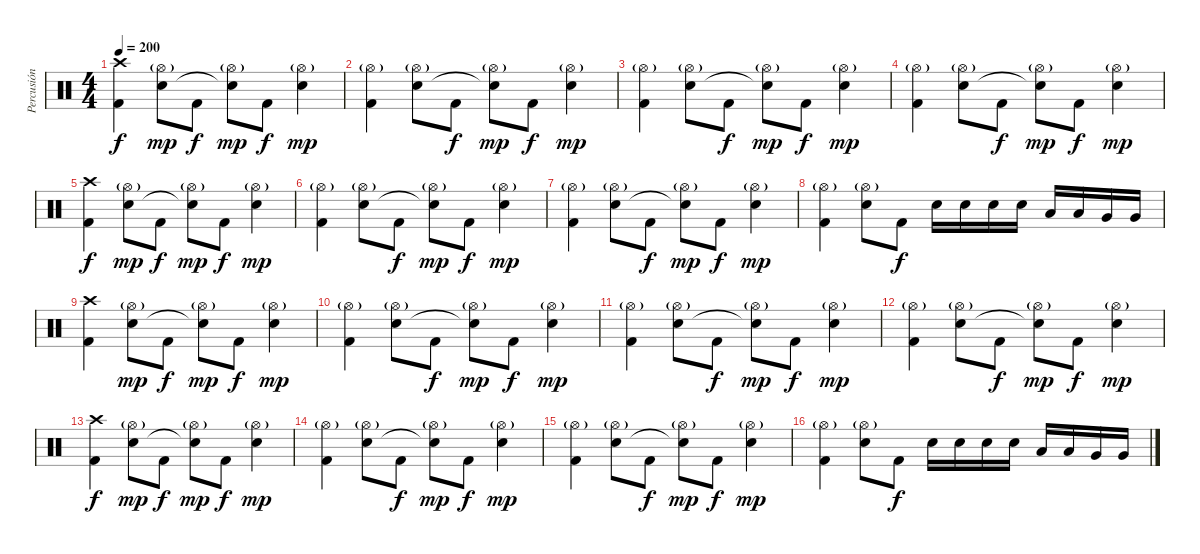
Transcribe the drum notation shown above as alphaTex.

\track ("Percusión" "Percusión") {instrument percussion}
\staff {score}
\articulation defaults
\ts (4 4)
\tempo 200
\clef neutral
\ks c
("Crash high (hit)" "Kick (hit) 2").4{dy f} ("Hi-Hat (open)"{g} "Snare (hit) 2").8{dy mp} "Kick (hit) 2".8{dy f} ("Hi-Hat (open)"{g} "Snare (hit)"{t}).8{dy mp} "Kick (hit) 2".8{dy f} ("Hi-Hat (open)"{g} "Snare (hit) 2").4{dy mp} |
("Hi-Hat (open)"{g} "Kick (hit) 2").4 ("Hi-Hat (open)"{g} "Snare (hit) 2").8 "Kick (hit) 2".8{dy f} ("Hi-Hat (open)"{g} "Snare (hit)"{t}).8{dy mp} "Kick (hit) 2".8{dy f} ("Hi-Hat (open)"{g} "Snare (hit) 2").4{dy mp} |
("Hi-Hat (open)"{g} "Kick (hit) 2").4 ("Hi-Hat (open)"{g} "Snare (hit) 2").8 "Kick (hit) 2".8{dy f} ("Hi-Hat (open)"{g} "Snare (hit)"{t}).8{dy mp} "Kick (hit) 2".8{dy f} ("Hi-Hat (open)"{g} "Snare (hit) 2").4{dy mp} |
("Hi-Hat (open)"{g} "Kick (hit) 2").4 ("Hi-Hat (open)"{g} "Snare (hit) 2").8 "Kick (hit) 2".8{dy f} ("Hi-Hat (open)"{g} "Snare (hit)"{t}).8{dy mp} "Kick (hit) 2".8{dy f} ("Hi-Hat (open)"{g} "Snare (hit) 2").4{dy mp} |
("Crash high (hit)" "Kick (hit) 2").4{dy f} ("Hi-Hat (open)"{g} "Snare (hit) 2").8{dy mp} "Kick (hit) 2".8{dy f} ("Hi-Hat (open)"{g} "Snare (hit)"{t}).8{dy mp} "Kick (hit) 2".8{dy f} ("Hi-Hat (open)"{g} "Snare (hit) 2").4{dy mp} |
("Hi-Hat (open)"{g} "Kick (hit) 2").4 ("Hi-Hat (open)"{g} "Snare (hit) 2").8 "Kick (hit) 2".8{dy f} ("Hi-Hat (open)"{g} "Snare (hit)"{t}).8{dy mp} "Kick (hit) 2".8{dy f} ("Hi-Hat (open)"{g} "Snare (hit) 2").4{dy mp} |
("Hi-Hat (open)"{g} "Kick (hit) 2").4 ("Hi-Hat (open)"{g} "Snare (hit) 2").8 "Kick (hit) 2".8{dy f} ("Hi-Hat (open)"{g} "Snare (hit)"{t}).8{dy mp} "Kick (hit) 2".8{dy f} ("Hi-Hat (open)"{g} "Snare (hit) 2").4{dy mp} |
("Hi-Hat (open)"{g} "Kick (hit) 2").4 ("Hi-Hat (open)"{g} "Snare (hit) 2").8 "Kick (hit) 2".8{dy f} "Snare (hit) 2".16 "Snare (hit) 2".16 "Snare (hit) 2".16 "Snare (hit) 2".16 "Low Tom (hit)".16 "Low Tom (hit)".16 "Very Low Tom (hit)".16 "Very Low Tom (hit)".16 |
("Crash high (hit)" "Kick (hit) 2").4 ("Hi-Hat (open)"{g} "Snare (hit) 2").8{dy mp} "Kick (hit) 2".8{dy f} ("Hi-Hat (open)"{g} "Snare (hit)"{t}).8{dy mp} "Kick (hit) 2".8{dy f} ("Hi-Hat (open)"{g} "Snare (hit) 2").4{dy mp} |
("Hi-Hat (open)"{g} "Kick (hit) 2").4 ("Hi-Hat (open)"{g} "Snare (hit) 2").8 "Kick (hit) 2".8{dy f} ("Hi-Hat (open)"{g} "Snare (hit)"{t}).8{dy mp} "Kick (hit) 2".8{dy f} ("Hi-Hat (open)"{g} "Snare (hit) 2").4{dy mp} |
("Hi-Hat (open)"{g} "Kick (hit) 2").4 ("Hi-Hat (open)"{g} "Snare (hit) 2").8 "Kick (hit) 2".8{dy f} ("Hi-Hat (open)"{g} "Snare (hit)"{t}).8{dy mp} "Kick (hit) 2".8{dy f} ("Hi-Hat (open)"{g} "Snare (hit) 2").4{dy mp} |
("Hi-Hat (open)"{g} "Kick (hit) 2").4 ("Hi-Hat (open)"{g} "Snare (hit) 2").8 "Kick (hit) 2".8{dy f} ("Hi-Hat (open)"{g} "Snare (hit)"{t}).8{dy mp} "Kick (hit) 2".8{dy f} ("Hi-Hat (open)"{g} "Snare (hit) 2").4{dy mp} |
("Crash high (hit)" "Kick (hit) 2").4{dy f} ("Hi-Hat (open)"{g} "Snare (hit) 2").8{dy mp} "Kick (hit) 2".8{dy f} ("Hi-Hat (open)"{g} "Snare (hit)"{t}).8{dy mp} "Kick (hit) 2".8{dy f} ("Hi-Hat (open)"{g} "Snare (hit) 2").4{dy mp} |
("Hi-Hat (open)"{g} "Kick (hit) 2").4 ("Hi-Hat (open)"{g} "Snare (hit) 2").8 "Kick (hit) 2".8{dy f} ("Hi-Hat (open)"{g} "Snare (hit)"{t}).8{dy mp} "Kick (hit) 2".8{dy f} ("Hi-Hat (open)"{g} "Snare (hit) 2").4{dy mp} |
("Hi-Hat (open)"{g} "Kick (hit) 2").4 ("Hi-Hat (open)"{g} "Snare (hit) 2").8 "Kick (hit) 2".8{dy f} ("Hi-Hat (open)"{g} "Snare (hit)"{t}).8{dy mp} "Kick (hit) 2".8{dy f} ("Hi-Hat (open)"{g} "Snare (hit) 2").4{dy mp} |
("Hi-Hat (open)"{g} "Kick (hit) 2").4 ("Hi-Hat (open)"{g} "Snare (hit) 2").8 "Kick (hit) 2".8{dy f} "Snare (hit) 2".16 "Snare (hit) 2".16 "Snare (hit) 2".16 "Snare (hit) 2".16 "Low Tom (hit)".16 "Low Tom (hit)".16 "Very Low Tom (hit)".16 "Very Low Tom (hit)".16
